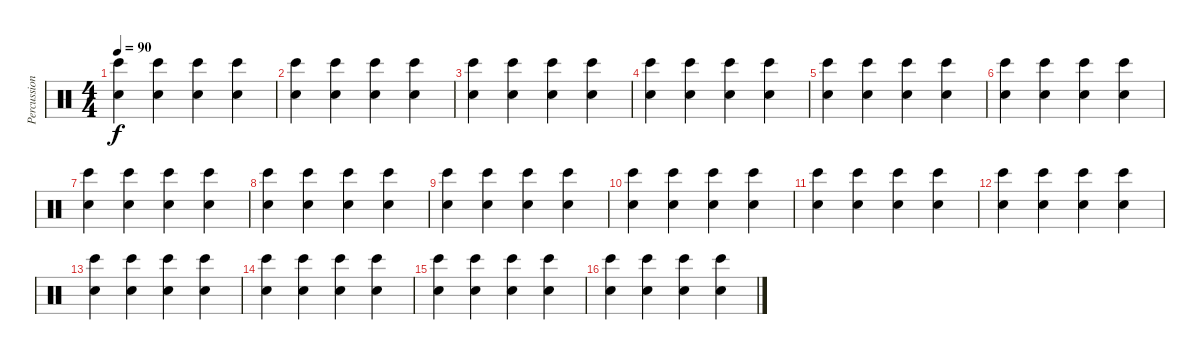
\track ("Percussion" "Percussion") {instrument percussion}
\staff {score}
\articulation defaults
\ts (4 4)
\tempo 90
\clef neutral
\ks c
("Hand Clap (hit)" "Bongo High (hit)").4{dy f} ("Hand Clap (hit)" "Bongo High (hit)").4 ("Hand Clap (hit)" "Bongo High (hit)").4 ("Hand Clap (hit)" "Bongo High (hit)").4 |
("Hand Clap (hit)" "Bongo High (hit)").4 ("Hand Clap (hit)" "Bongo High (hit)").4 ("Hand Clap (hit)" "Bongo High (hit)").4 ("Hand Clap (hit)" "Bongo High (hit)").4 |
("Hand Clap (hit)" "Bongo High (hit)").4 ("Hand Clap (hit)" "Bongo High (hit)").4 ("Hand Clap (hit)" "Bongo High (hit)").4 ("Hand Clap (hit)" "Bongo High (hit)").4 |
("Hand Clap (hit)" "Bongo High (hit)").4 ("Hand Clap (hit)" "Bongo High (hit)").4 ("Hand Clap (hit)" "Bongo High (hit)").4 ("Hand Clap (hit)" "Bongo High (hit)").4 |
("Bongo High (hit)" "Hand Clap (hit)").4 ("Bongo High (hit)" "Hand Clap (hit)").4 ("Hand Clap (hit)" "Bongo High (hit)").4 ("Hand Clap (hit)" "Bongo High (hit)").4 |
("Hand Clap (hit)" "Bongo High (hit)").4 ("Bongo High (hit)" "Hand Clap (hit)").4 ("Hand Clap (hit)" "Bongo High (hit)").4 ("Hand Clap (hit)" "Bongo High (hit)").4 |
("Hand Clap (hit)" "Bongo High (hit)").4 ("Hand Clap (hit)" "Bongo High (hit)").4 ("Hand Clap (hit)" "Bongo High (hit)").4 ("Hand Clap (hit)" "Bongo High (hit)").4 |
("Hand Clap (hit)" "Bongo High (hit)").4 ("Hand Clap (hit)" "Bongo High (hit)").4 ("Hand Clap (hit)" "Bongo High (hit)").4 ("Hand Clap (hit)" "Bongo High (hit)").4 |
("Hand Clap (hit)" "Bongo High (hit)").4 ("Hand Clap (hit)" "Bongo High (hit)").4 ("Hand Clap (hit)" "Bongo High (hit)").4 ("Hand Clap (hit)" "Bongo High (hit)").4 |
("Hand Clap (hit)" "Bongo High (hit)").4 ("Hand Clap (hit)" "Bongo High (hit)").4 ("Hand Clap (hit)" "Bongo High (hit)").4 ("Hand Clap (hit)" "Bongo High (hit)").4 |
("Hand Clap (hit)" "Bongo High (hit)").4 ("Hand Clap (hit)" "Bongo High (hit)").4 ("Hand Clap (hit)" "Bongo High (hit)").4 ("Hand Clap (hit)" "Bongo High (hit)").4 |
("Hand Clap (hit)" "Bongo High (hit)").4 ("Hand Clap (hit)" "Bongo High (hit)").4 ("Hand Clap (hit)" "Bongo High (hit)").4 ("Hand Clap (hit)" "Bongo High (hit)").4 |
("Hand Clap (hit)" "Bongo High (hit)").4 ("Hand Clap (hit)" "Bongo High (hit)").4 ("Hand Clap (hit)" "Bongo High (hit)").4 ("Hand Clap (hit)" "Bongo High (hit)").4 |
("Hand Clap (hit)" "Bongo High (hit)").4 ("Hand Clap (hit)" "Bongo High (hit)").4 ("Hand Clap (hit)" "Bongo High (hit)").4 ("Hand Clap (hit)" "Bongo High (hit)").4 |
("Hand Clap (hit)" "Bongo High (hit)").4 ("Hand Clap (hit)" "Bongo High (hit)").4 ("Hand Clap (hit)" "Bongo High (hit)").4 ("Hand Clap (hit)" "Bongo High (hit)").4 |
("Hand Clap (hit)" "Bongo High (hit)").4 ("Hand Clap (hit)" "Bongo High (hit)").4 ("Hand Clap (hit)" "Bongo High (hit)").4 ("Hand Clap (hit)" "Bongo High (hit)").4
